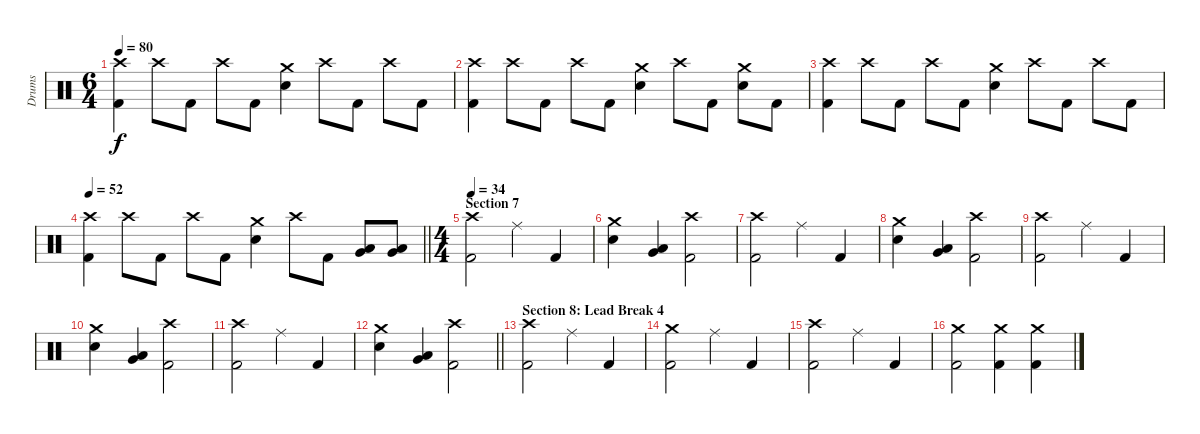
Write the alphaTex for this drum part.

\track ("Drums" "Drums") {instrument percussion}
\staff {score}
\articulation defaults
\ts (6 4)
\tempo 80
\clef neutral
\ks c
("Crash high (hit)" "Kick (hit) 2").4{dy f} "Crash high (hit)".8 "Kick (hit) 2".8 "Crash high (hit)".8 "Kick (hit) 2".8 ("Crash medium (hit)" "Electric Snare (hit)").4 "Crash high (hit)".8 "Kick (hit) 2".8 "Crash high (hit)".8 "Kick (hit) 2".8 |
("Crash high (hit)" "Kick (hit) 2").4 "Crash high (hit)".8 "Kick (hit) 2".8 "Crash high (hit)".8 "Kick (hit) 2".8 ("Crash medium (hit)" "Electric Snare (hit)").4 "Crash high (hit)".8 "Kick (hit) 2".8 ("Crash medium (hit)" "Electric Snare (hit)").8 "Kick (hit) 2".8 |
("Crash high (hit)" "Kick (hit) 2").4 "Crash high (hit)".8 "Kick (hit) 2".8 "Crash high (hit)".8 "Kick (hit) 2".8 ("Crash medium (hit)" "Electric Snare (hit)").4 "Crash high (hit)".8 "Kick (hit) 2".8 "Crash high (hit)".8 "Kick (hit) 2".8 |
\tempo 52
\barLineRight lightlight
("Crash high (hit)" "Kick (hit) 2").4 "Crash high (hit)".8 "Kick (hit) 2".8 "Crash high (hit)".8 "Kick (hit) 2".8 ("Crash medium (hit)" "Electric Snare (hit)").4 "Crash high (hit)".8 "Kick (hit) 2".8 ("Very Low Tom (hit)" "Low Floor Tom (hit)").8 ("Very Low Tom (hit)" "Low Floor Tom (hit)").8 |
\ts (4 4)
\section ("" "Section 7")
\tempo 34
("Crash high (hit)" "Kick (hit) 2").2 "Ride (middle)".4 "Kick (hit) 2".4 |
("Crash medium (hit)" "Electric Snare (hit)").4 ("Very Low Tom (hit)" "Low Floor Tom (hit)").4 ("Crash high (hit)" "Kick (hit) 2").2 |
("Crash high (hit)" "Kick (hit) 2").2 "Ride (middle)".4 "Kick (hit) 2".4 |
("Crash medium (hit)" "Electric Snare (hit)").4 ("Very Low Tom (hit)" "Low Floor Tom (hit)").4 ("Crash high (hit)" "Kick (hit) 2").2 |
("Crash high (hit)" "Kick (hit) 2").2 "Ride (middle)".4 "Kick (hit) 2".4 |
("Crash medium (hit)" "Electric Snare (hit)").4 ("Very Low Tom (hit)" "Low Floor Tom (hit)").4 ("Crash high (hit)" "Kick (hit) 2").2 |
("Crash high (hit)" "Kick (hit) 2").2 "Ride (middle)".4 "Kick (hit) 2".4 |
\barLineRight lightlight
("Crash medium (hit)" "Electric Snare (hit)").4 ("Very Low Tom (hit)" "Low Floor Tom (hit)").4 ("Crash high (hit)" "Kick (hit) 2").2 |
\section ("" "Section 8: Lead Break 4")
("Crash high (hit)" "Kick (hit) 2").2 "Ride (middle)".4 "Kick (hit) 2".4 |
("Crash medium (hit)" "Kick (hit) 2").2 "Ride (middle)".4 "Kick (hit) 2".4 |
("Crash high (hit)" "Kick (hit) 2").2 "Ride (middle)".4 "Kick (hit) 2".4 |
("Crash medium (hit)" "Kick (hit) 2").2 ("Crash medium (hit)" "Kick (hit) 2").4 ("Crash medium (hit)" "Kick (hit) 2").4
